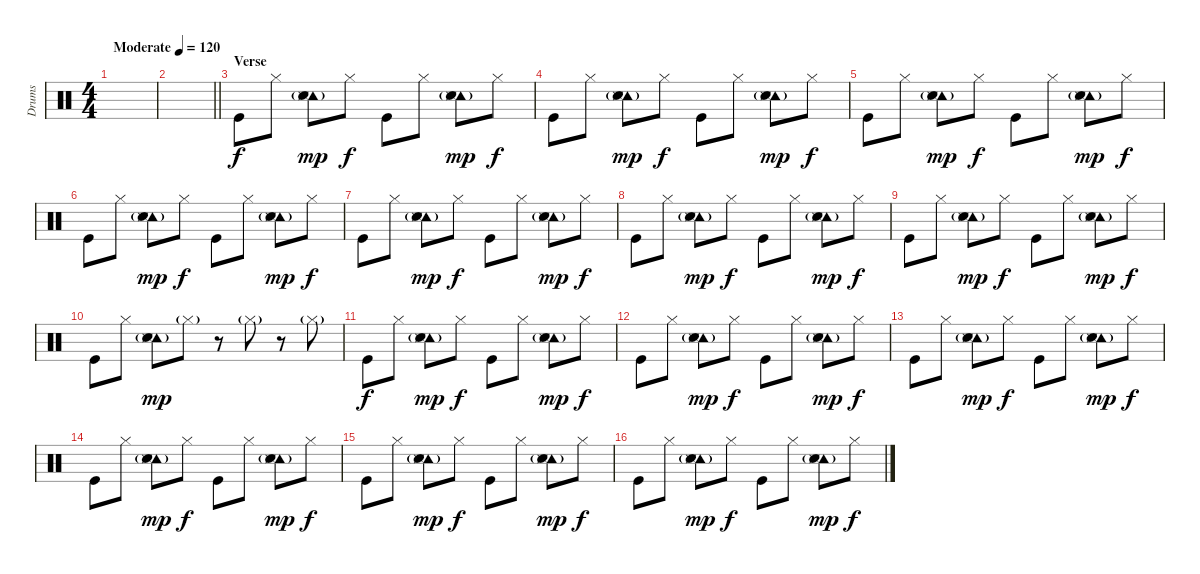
\track ("Drums" "Drums") {instrument percussion}
\staff {score}
\articulation defaults
\ts (4 4)
\tempo (120 "Moderate")
\clef neutral
\ks c
|
\barLineRight lightlight
|
\section ("" "Verse")
"Kick (hit)".8{volume 8 balance 10} "Hi-Hat (closed)".8 ("Tambourine (hit)" "Electric Snare (hit)" "Snare (side stick) 3"{g}).8{dy mp} "Hi-Hat (closed)".8{dy f} "Kick (hit)".8 "Hi-Hat (closed)".8 ("Tambourine (hit)" "Electric Snare (hit)" "Snare (side stick) 3"{g}).8{dy mp} "Hi-Hat (closed)".8{dy f} |
"Kick (hit)".8 "Hi-Hat (closed)".8 ("Tambourine (hit)" "Electric Snare (hit)" "Snare (side stick) 3"{g}).8{dy mp} "Hi-Hat (closed)".8{dy f} "Kick (hit)".8 "Hi-Hat (closed)".8 ("Tambourine (hit)" "Electric Snare (hit)" "Snare (side stick) 3"{g}).8{dy mp} "Hi-Hat (closed)".8{dy f} |
"Kick (hit)".8 "Hi-Hat (closed)".8 ("Tambourine (hit)" "Electric Snare (hit)" "Snare (side stick) 3"{g}).8{dy mp} "Hi-Hat (closed)".8{dy f} "Kick (hit)".8 "Hi-Hat (closed)".8 ("Tambourine (hit)" "Electric Snare (hit)" "Snare (side stick) 3"{g}).8{dy mp} "Hi-Hat (closed)".8{dy f} |
"Kick (hit)".8 "Hi-Hat (closed)".8 ("Tambourine (hit)" "Electric Snare (hit)" "Snare (side stick) 3"{g}).8{dy mp} "Hi-Hat (closed)".8{dy f} "Kick (hit)".8 "Hi-Hat (closed)".8 ("Tambourine (hit)" "Electric Snare (hit)" "Snare (side stick) 3"{g}).8{dy mp} "Hi-Hat (closed)".8{dy f} |
"Kick (hit)".8 "Hi-Hat (closed)".8 ("Tambourine (hit)" "Electric Snare (hit)" "Snare (side stick) 3"{g}).8{dy mp} "Hi-Hat (closed)".8{dy f} "Kick (hit)".8 "Hi-Hat (closed)".8 ("Tambourine (hit)" "Electric Snare (hit)" "Snare (side stick) 3"{g}).8{dy mp} "Hi-Hat (closed)".8{dy f} |
"Kick (hit)".8 "Hi-Hat (closed)".8 ("Tambourine (hit)" "Electric Snare (hit)" "Snare (side stick) 3"{g}).8{dy mp} "Hi-Hat (closed)".8{dy f} "Kick (hit)".8 "Hi-Hat (closed)".8 ("Tambourine (hit)" "Electric Snare (hit)" "Snare (side stick) 3"{g}).8{dy mp} "Hi-Hat (closed)".8{dy f} |
"Kick (hit)".8 "Hi-Hat (closed)".8 ("Tambourine (hit)" "Electric Snare (hit)" "Snare (side stick) 3"{g}).8{dy mp} "Hi-Hat (closed)".8{dy f} "Kick (hit)".8 "Hi-Hat (closed)".8 ("Tambourine (hit)" "Electric Snare (hit)" "Snare (side stick) 3"{g}).8{dy mp} "Hi-Hat (closed)".8{dy f} |
"Kick (hit)".8 "Hi-Hat (closed)".8 ("Tambourine (hit)" "Electric Snare (hit)" "Snare (side stick) 3"{g}).8{dy mp} "Hi-Hat (closed)"{g}.8 r.8 "Hi-Hat (closed)"{g}.8 r.8 "Hi-Hat (closed)"{g}.8 |
"Kick (hit)".8{dy f} "Hi-Hat (closed)".8 ("Tambourine (hit)" "Electric Snare (hit)" "Snare (side stick) 3"{g}).8{dy mp} "Hi-Hat (closed)".8{dy f} "Kick (hit)".8 "Hi-Hat (closed)".8 ("Tambourine (hit)" "Electric Snare (hit)" "Snare (side stick) 3"{g}).8{dy mp} "Hi-Hat (closed)".8{dy f} |
"Kick (hit)".8 "Hi-Hat (closed)".8 ("Tambourine (hit)" "Electric Snare (hit)" "Snare (side stick) 3"{g}).8{dy mp} "Hi-Hat (closed)".8{dy f} "Kick (hit)".8 "Hi-Hat (closed)".8 ("Tambourine (hit)" "Electric Snare (hit)" "Snare (side stick) 3"{g}).8{dy mp} "Hi-Hat (closed)".8{dy f} |
"Kick (hit)".8 "Hi-Hat (closed)".8 ("Tambourine (hit)" "Electric Snare (hit)" "Snare (side stick) 3"{g}).8{dy mp} "Hi-Hat (closed)".8{dy f} "Kick (hit)".8 "Hi-Hat (closed)".8 ("Tambourine (hit)" "Electric Snare (hit)" "Snare (side stick) 3"{g}).8{dy mp} "Hi-Hat (closed)".8{dy f} |
"Kick (hit)".8 "Hi-Hat (closed)".8 ("Tambourine (hit)" "Electric Snare (hit)" "Snare (side stick) 3"{g}).8{dy mp} "Hi-Hat (closed)".8{dy f} "Kick (hit)".8 "Hi-Hat (closed)".8 ("Tambourine (hit)" "Electric Snare (hit)" "Snare (side stick) 3"{g}).8{dy mp} "Hi-Hat (closed)".8{dy f} |
"Kick (hit)".8 "Hi-Hat (closed)".8 ("Tambourine (hit)" "Electric Snare (hit)" "Snare (side stick) 3"{g}).8{dy mp} "Hi-Hat (closed)".8{dy f} "Kick (hit)".8 "Hi-Hat (closed)".8 ("Tambourine (hit)" "Electric Snare (hit)" "Snare (side stick) 3"{g}).8{dy mp} "Hi-Hat (closed)".8{dy f} |
"Kick (hit)".8 "Hi-Hat (closed)".8 ("Tambourine (hit)" "Electric Snare (hit)" "Snare (side stick) 3"{g}).8{dy mp} "Hi-Hat (closed)".8{dy f} "Kick (hit)".8 "Hi-Hat (closed)".8 ("Tambourine (hit)" "Electric Snare (hit)" "Snare (side stick) 3"{g}).8{dy mp} "Hi-Hat (closed)".8{dy f}
